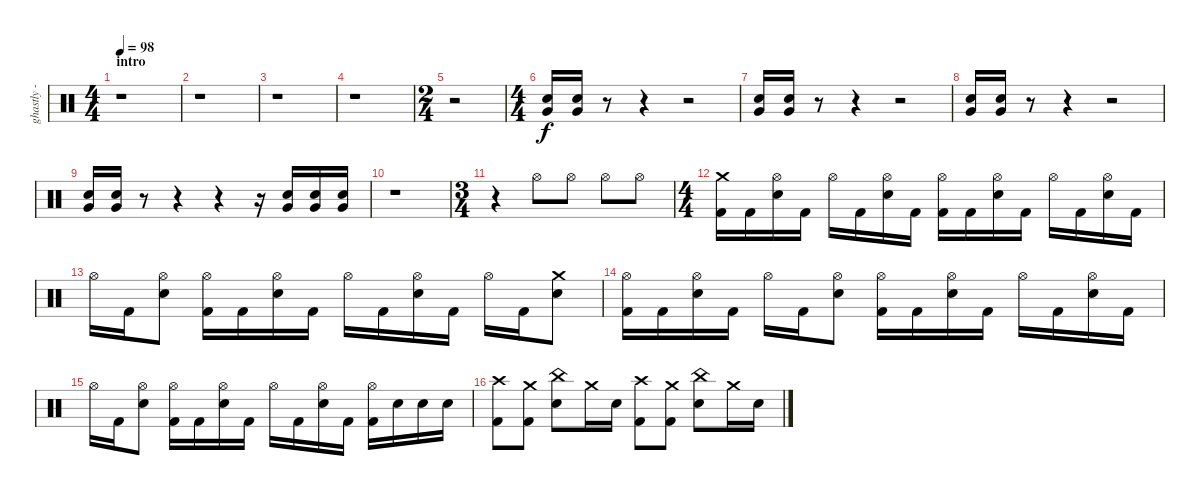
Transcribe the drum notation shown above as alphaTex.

\track ("ghastly - drums" "ghastly - ") {instrument percussion}
\staff {score}
\articulation defaults
\ts (4 4)
\section ("" "intro")
\tempo 98
\clef neutral
\ks c
r.1{dy f} |
r.1 |
r.1 |
r.1 |
\ts (2 4)
r.2 |
\ts (4 4)
("Electric Snare (hit)" "Very Low Tom (hit)").16 ("Electric Snare (hit)" "Very Low Tom (hit)").16 r.8 r.4 r.2 |
("Electric Snare (hit)" "Very Low Tom (hit)").16 ("Electric Snare (hit)" "Very Low Tom (hit)").16 r.8 r.4 r.2 |
("Electric Snare (hit)" "Very Low Tom (hit)").16 ("Electric Snare (hit)" "Very Low Tom (hit)").16 r.8 r.4 r.2 |
("Electric Snare (hit)" "Very Low Tom (hit)").16 ("Electric Snare (hit)" "Very Low Tom (hit)").16 r.8 r.4 r.4 r.16 ("Electric Snare (hit)" "Very Low Tom (hit)").16 ("Electric Snare (hit)" "Very Low Tom (hit)").16 ("Electric Snare (hit)" "Very Low Tom (hit)").16 |
r.1 |
\ts (3 4)
r.4 "Hi-Hat (open)".8 "Hi-Hat (open)".8 "Hi-Hat (open)".8 "Hi-Hat (open)".8 |
\ts (4 4)
("Crash medium (hit)" "Kick (hit) 2").16 "Kick (hit) 2".16 ("Hi-Hat (open)" "Electric Snare (hit)").16 "Kick (hit) 2".16 "Hi-Hat (open)".16 "Kick (hit) 2".16 ("Hi-Hat (open)" "Electric Snare (hit)").16 "Kick (hit) 2".16 ("Hi-Hat (open)" "Kick (hit) 2").16 "Kick (hit) 2".16 ("Hi-Hat (open)" "Electric Snare (hit)").16 "Kick (hit) 2".16 "Hi-Hat (open)".16 "Kick (hit) 2".16 ("Hi-Hat (open)" "Electric Snare (hit)").16 "Kick (hit) 2".16 |
"Hi-Hat (open)".16 "Kick (hit) 2".16 ("Hi-Hat (open)" "Electric Snare (hit)").8 ("Hi-Hat (open)" "Kick (hit) 2").16 "Kick (hit) 2".16 ("Hi-Hat (open)" "Electric Snare (hit)").16 "Kick (hit) 2".16 "Hi-Hat (open)".16 "Kick (hit) 2".16 ("Hi-Hat (open)" "Electric Snare (hit)").16 "Kick (hit) 2".16 "Hi-Hat (open)".16 "Kick (hit) 2".16 ("Crash medium (hit)" "Electric Snare (hit)").8 |
("Hi-Hat (open)" "Kick (hit) 2").16 "Kick (hit) 2".16 ("Hi-Hat (open)" "Electric Snare (hit)").16 "Kick (hit) 2".16 "Hi-Hat (open)".16 "Kick (hit) 2".16 ("Hi-Hat (open)" "Electric Snare (hit)").8 ("Hi-Hat (open)" "Kick (hit) 2").16 "Kick (hit) 2".16 ("Hi-Hat (open)" "Electric Snare (hit)").16 "Kick (hit) 2".16 "Hi-Hat (open)".16 "Kick (hit) 2".16 ("Hi-Hat (open)" "Electric Snare (hit)").16 "Kick (hit) 2".16 |
"Hi-Hat (open)".16 "Kick (hit) 2".16 ("Hi-Hat (open)" "Electric Snare (hit)").8 ("Hi-Hat (open)" "Kick (hit) 2").16 "Kick (hit) 2".16 ("Hi-Hat (open)" "Electric Snare (hit)").16 "Kick (hit) 2".16 "Hi-Hat (open)".16 "Kick (hit) 2".16 ("Hi-Hat (open)" "Electric Snare (hit)").16 "Kick (hit) 2".16 ("Hi-Hat (open)" "Kick (hit) 2").16 "Electric Snare (hit)".16 "Electric Snare (hit)".16 "Electric Snare (hit)".16 |
("Crash high (hit)" "Kick (hit) 2").8 ("Crash medium (hit)" "Kick (hit) 2").8 ("China (hit)" "Electric Snare (hit)").8 "Crash medium (hit)".16 "Electric Snare (hit)".16 ("Crash high (hit)" "Kick (hit) 2").8 ("Crash medium (hit)" "Kick (hit) 2").8 ("China (hit)" "Electric Snare (hit)").8 "Crash medium (hit)".16 "Electric Snare (hit)".16
